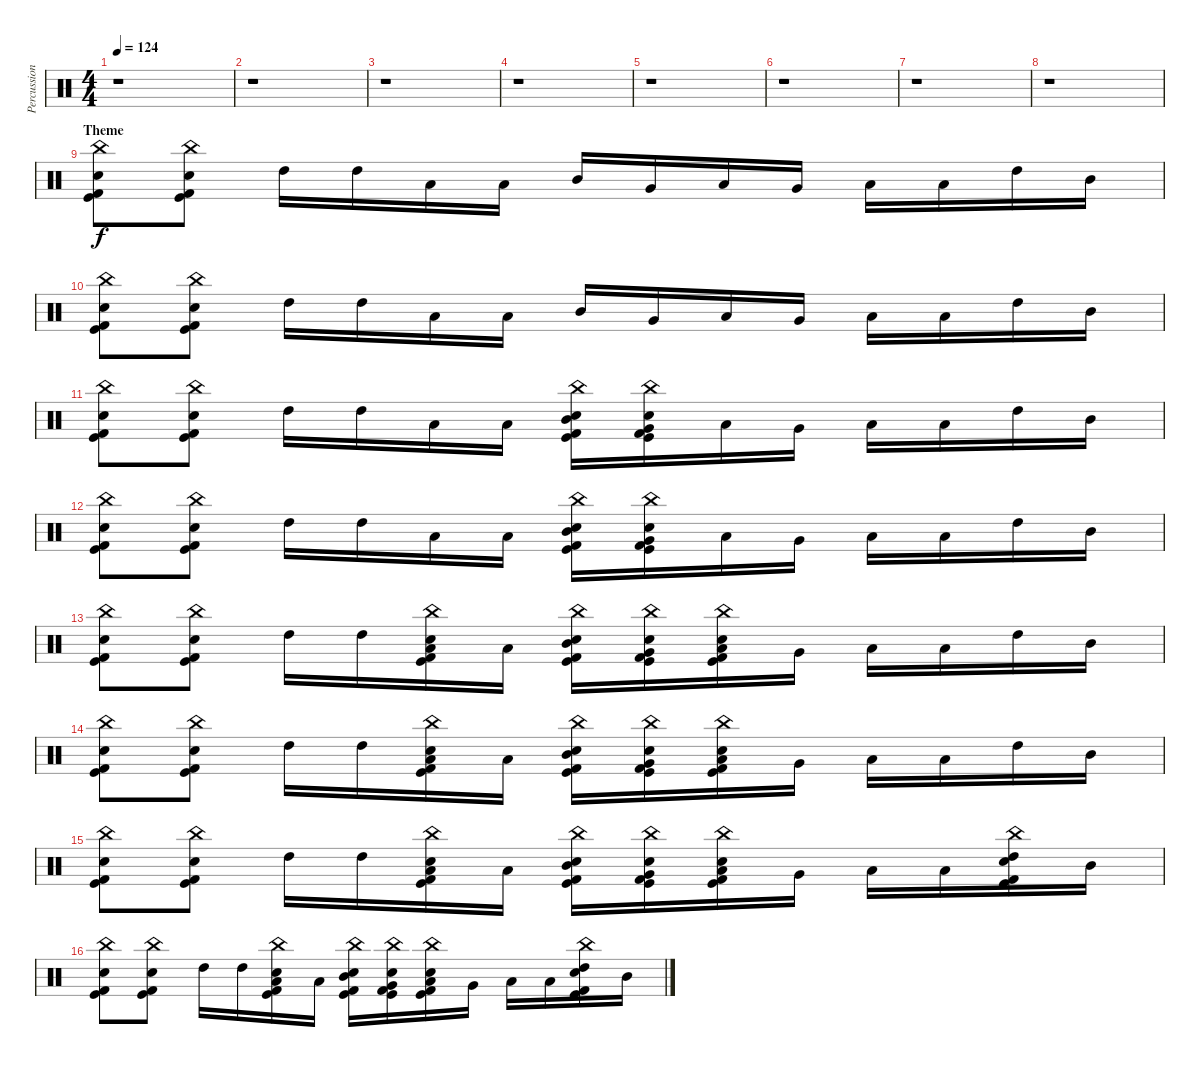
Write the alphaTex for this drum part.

\track ("Percussion" "Percussion") {instrument percussion}
\staff {score}
\articulation defaults
\ts (4 4)
\tempo 124
\clef neutral
\ks c
r.1{dy f} |
r.1 |
r.1 |
r.1 |
r.1 |
r.1 |
r.1 |
r.1 |
\section ("" "Theme")
("China (hit)" "Snare (hit) 2" "Kick (hit) 2" "Kick (hit)").8 ("China (hit)" "Snare (hit) 2" "Kick (hit) 2" "Kick (hit)").8 "High Tom (hit)".16 "High Tom (hit)".16 "Low Tom (hit)".16 "Low Tom (hit)".16 "Mid Tom (hit)".16 "Very Low Tom (hit)".16 "Low Floor Tom (hit)".16 "Very Low Tom (hit)".16 "Low Tom (hit)".16 "Low Tom (hit)".16 "High Tom (hit)".16 "Mid Tom (hit)".16 |
("China (hit)" "Snare (hit) 2" "Kick (hit) 2" "Kick (hit)").8 ("China (hit)" "Snare (hit) 2" "Kick (hit) 2" "Kick (hit)").8 "High Tom (hit)".16 "High Tom (hit)".16 "Low Tom (hit)".16 "Low Tom (hit)".16 "Mid Tom (hit)".16 "Very Low Tom (hit)".16 "Low Floor Tom (hit)".16 "Very Low Tom (hit)".16 "Low Tom (hit)".16 "Low Tom (hit)".16 "High Tom (hit)".16 "Mid Tom (hit)".16 |
("China (hit)" "Snare (hit) 2" "Kick (hit) 2" "Kick (hit)").8 ("China (hit)" "Snare (hit) 2" "Kick (hit) 2" "Kick (hit)").8 "High Tom (hit)".16 "High Tom (hit)".16 "Low Tom (hit)".16 "Low Tom (hit)".16 ("China (hit)" "Snare (hit) 2" "Mid Tom (hit)" "Kick (hit) 2" "Kick (hit)").16 ("China (hit)" "Snare (hit) 2" "Very Low Tom (hit)" "Kick (hit) 2" "Kick (hit)").16 "Low Floor Tom (hit)".16 "Very Low Tom (hit)".16 "Low Tom (hit)".16 "Low Tom (hit)".16 "High Tom (hit)".16 "Mid Tom (hit)".16 |
("China (hit)" "Snare (hit) 2" "Kick (hit) 2" "Kick (hit)").8 ("China (hit)" "Snare (hit) 2" "Kick (hit) 2" "Kick (hit)").8 "High Tom (hit)".16 "High Tom (hit)".16 "Low Tom (hit)".16 "Low Tom (hit)".16 ("China (hit)" "Snare (hit) 2" "Mid Tom (hit)" "Kick (hit) 2" "Kick (hit)").16 ("China (hit)" "Snare (hit) 2" "Very Low Tom (hit)" "Kick (hit) 2" "Kick (hit)").16 "Low Floor Tom (hit)".16 "Very Low Tom (hit)".16 "Low Tom (hit)".16 "Low Tom (hit)".16 "High Tom (hit)".16 "Mid Tom (hit)".16 |
("China (hit)" "Snare (hit) 2" "Kick (hit) 2" "Kick (hit)").8 ("China (hit)" "Snare (hit) 2" "Kick (hit) 2" "Kick (hit)").8 "High Tom (hit)".16 "High Tom (hit)".16 ("China (hit)" "Snare (hit) 2" "Low Tom (hit)" "Kick (hit) 2" "Kick (hit)").16 "Low Tom (hit)".16 ("China (hit)" "Snare (hit) 2" "Mid Tom (hit)" "Kick (hit) 2" "Kick (hit)").16 ("China (hit)" "Snare (hit) 2" "Very Low Tom (hit)" "Kick (hit) 2" "Kick (hit)").16 ("China (hit)" "Snare (hit) 2" "Low Floor Tom (hit)" "Kick (hit) 2" "Kick (hit)").16 "Very Low Tom (hit)".16 "Low Tom (hit)".16 "Low Tom (hit)".16 "High Tom (hit)".16 "Mid Tom (hit)".16 |
("China (hit)" "Snare (hit) 2" "Kick (hit) 2" "Kick (hit)").8 ("China (hit)" "Snare (hit) 2" "Kick (hit) 2" "Kick (hit)").8 "High Tom (hit)".16 "High Tom (hit)".16 ("China (hit)" "Snare (hit) 2" "Low Tom (hit)" "Kick (hit) 2" "Kick (hit)").16 "Low Tom (hit)".16 ("China (hit)" "Snare (hit) 2" "Mid Tom (hit)" "Kick (hit) 2" "Kick (hit)").16 ("China (hit)" "Snare (hit) 2" "Very Low Tom (hit)" "Kick (hit) 2" "Kick (hit)").16 ("China (hit)" "Snare (hit) 2" "Low Floor Tom (hit)" "Kick (hit) 2" "Kick (hit)").16 "Very Low Tom (hit)".16 "Low Tom (hit)".16 "Low Tom (hit)".16 "High Tom (hit)".16 "Mid Tom (hit)".16 |
("China (hit)" "Snare (hit) 2" "Kick (hit) 2" "Kick (hit)").8 ("China (hit)" "Snare (hit) 2" "Kick (hit) 2" "Kick (hit)").8 "High Tom (hit)".16 "High Tom (hit)".16 ("China (hit)" "Snare (hit) 2" "Low Tom (hit)" "Kick (hit) 2" "Kick (hit)").16 "Low Tom (hit)".16 ("China (hit)" "Snare (hit) 2" "Mid Tom (hit)" "Kick (hit) 2" "Kick (hit)").16 ("China (hit)" "Snare (hit) 2" "Very Low Tom (hit)" "Kick (hit) 2" "Kick (hit)").16 ("China (hit)" "Snare (hit) 2" "Low Floor Tom (hit)" "Kick (hit) 2" "Kick (hit)").16 "Very Low Tom (hit)".16 "Low Tom (hit)".16 "Low Tom (hit)".16 ("China (hit)" "Snare (hit) 2" "High Tom (hit)" "Kick (hit) 2" "Kick (hit)").16 "Mid Tom (hit)".16 |
("China (hit)" "Snare (hit) 2" "Kick (hit) 2" "Kick (hit)").8 ("China (hit)" "Snare (hit) 2" "Kick (hit) 2" "Kick (hit)").8 "High Tom (hit)".16 "High Tom (hit)".16 ("China (hit)" "Snare (hit) 2" "Low Tom (hit)" "Kick (hit) 2" "Kick (hit)").16 "Low Tom (hit)".16 ("China (hit)" "Snare (hit) 2" "Mid Tom (hit)" "Kick (hit) 2" "Kick (hit)").16 ("China (hit)" "Snare (hit) 2" "Very Low Tom (hit)" "Kick (hit) 2" "Kick (hit)").16 ("China (hit)" "Snare (hit) 2" "Low Floor Tom (hit)" "Kick (hit) 2" "Kick (hit)").16 "Very Low Tom (hit)".16 "Low Tom (hit)".16 "Low Tom (hit)".16 ("China (hit)" "Snare (hit) 2" "High Tom (hit)" "Kick (hit) 2" "Kick (hit)").16 "Mid Tom (hit)".16
